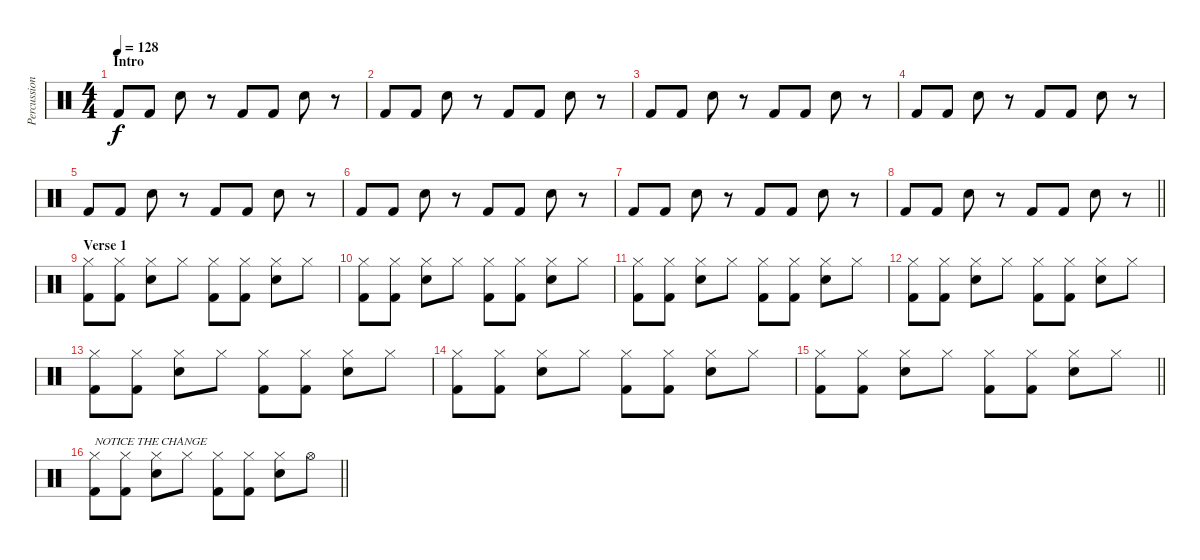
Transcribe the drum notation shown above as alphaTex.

\track ("Percussion" "Percussion") {instrument percussion}
\staff {score}
\articulation defaults
\ts (4 4)
\section ("" "Intro")
\tempo 128
\clef neutral
\ks c "Kick (hit) 2".8{dy f} "Kick (hit) 2".8 "Snare (hit) 2".8
r.8 "Kick (hit) 2".8 "Kick (hit) 2".8 "Snare (hit) 2".8 r.8 |
"Kick (hit) 2".8 "Kick (hit) 2".8 "Snare (hit) 2".8 r.8 "Kick (hit) 2".8 "Kick (hit) 2".8 "Snare (hit) 2".8 r.8 |
"Kick (hit) 2".8 "Kick (hit) 2".8 "Snare (hit) 2".8 r.8 "Kick (hit) 2".8 "Kick (hit) 2".8 "Snare (hit) 2".8 r.8 |
"Kick (hit) 2".8 "Kick (hit) 2".8 "Snare (hit) 2".8 r.8 "Kick (hit) 2".8 "Kick (hit) 2".8 "Snare (hit) 2".8 r.8 |
"Kick (hit) 2".8 "Kick (hit) 2".8 "Snare (hit) 2".8 r.8 "Kick (hit) 2".8 "Kick (hit) 2".8 "Snare (hit) 2".8 r.8 |
"Kick (hit) 2".8 "Kick (hit) 2".8 "Snare (hit) 2".8 r.8 "Kick (hit) 2".8 "Kick (hit) 2".8 "Snare (hit) 2".8 r.8 |
"Kick (hit) 2".8 "Kick (hit) 2".8 "Snare (hit) 2".8 r.8 "Kick (hit) 2".8 "Kick (hit) 2".8 "Snare (hit) 2".8 r.8 |
\barLineRight lightlight "Kick (hit) 2".8 "Kick (hit) 2".8 "Snare (hit) 2".8
r.8 "Kick (hit) 2".8 "Kick (hit) 2".8 "Snare (hit) 2".8 r.8 |
\section ("" "Verse 1")
("Hi-Hat (closed)" "Kick (hit) 2").8 ("Hi-Hat (closed)" "Kick (hit) 2").8 ("Hi-Hat (closed)" "Snare (hit) 2").8 "Hi-Hat (closed)".8 ("Hi-Hat (closed)" "Kick (hit) 2").8 ("Hi-Hat (closed)" "Kick (hit) 2").8 ("Hi-Hat (closed)" "Snare (hit) 2").8 "Hi-Hat (closed)".8 |
("Hi-Hat (closed)" "Kick (hit) 2").8 ("Hi-Hat (closed)" "Kick (hit) 2").8 ("Hi-Hat (closed)" "Snare (hit) 2").8 "Hi-Hat (closed)".8 ("Hi-Hat (closed)" "Kick (hit) 2").8 ("Hi-Hat (closed)" "Kick (hit) 2").8 ("Hi-Hat (closed)" "Snare (hit) 2").8 "Hi-Hat (closed)".8 |
("Hi-Hat (closed)" "Kick (hit) 2").8 ("Hi-Hat (closed)" "Kick (hit) 2").8 ("Hi-Hat (closed)" "Snare (hit) 2").8 "Hi-Hat (closed)".8 ("Hi-Hat (closed)" "Kick (hit) 2").8 ("Hi-Hat (closed)" "Kick (hit) 2").8 ("Hi-Hat (closed)" "Snare (hit) 2").8 "Hi-Hat (closed)".8 |
("Hi-Hat (closed)" "Kick (hit) 2").8 ("Hi-Hat (closed)" "Kick (hit) 2").8 ("Hi-Hat (closed)" "Snare (hit) 2").8 "Hi-Hat (closed)".8 ("Hi-Hat (closed)" "Kick (hit) 2").8 ("Hi-Hat (closed)" "Kick (hit) 2").8 ("Hi-Hat (closed)" "Snare (hit) 2").8 "Hi-Hat (closed)".8 |
("Hi-Hat (closed)" "Kick (hit) 2").8 ("Hi-Hat (closed)" "Kick (hit) 2").8 ("Hi-Hat (closed)" "Snare (hit) 2").8 "Hi-Hat (closed)".8 ("Hi-Hat (closed)" "Kick (hit) 2").8 ("Hi-Hat (closed)" "Kick (hit) 2").8 ("Hi-Hat (closed)" "Snare (hit) 2").8 "Hi-Hat (closed)".8 |
("Hi-Hat (closed)" "Kick (hit) 2").8 ("Hi-Hat (closed)" "Kick (hit) 2").8 ("Hi-Hat (closed)" "Snare (hit) 2").8 "Hi-Hat (closed)".8 ("Hi-Hat (closed)" "Kick (hit) 2").8 ("Hi-Hat (closed)" "Kick (hit) 2").8 ("Hi-Hat (closed)" "Snare (hit) 2").8 "Hi-Hat (closed)".8 |
\barLineRight lightlight
("Hi-Hat (closed)" "Kick (hit) 2").8 ("Hi-Hat (closed)" "Kick (hit) 2").8 ("Hi-Hat (closed)" "Snare (hit) 2").8 "Hi-Hat (closed)".8 ("Hi-Hat (closed)" "Kick (hit) 2").8 ("Hi-Hat (closed)" "Kick (hit) 2").8 ("Hi-Hat (closed)" "Snare (hit) 2").8 "Hi-Hat (closed)".8 |
\barLineRight lightlight
("Hi-Hat (closed)" "Kick (hit) 2").8{txt "NOTICE THE CHANGE"} ("Hi-Hat (closed)" "Kick (hit) 2").8 ("Hi-Hat (closed)" "Snare (hit) 2").8 "Hi-Hat (closed)".8 ("Hi-Hat (closed)" "Kick (hit) 2").8 ("Hi-Hat (closed)" "Kick (hit) 2").8 ("Hi-Hat (closed)" "Snare (hit) 2").8 "Hi-Hat (open)".8
